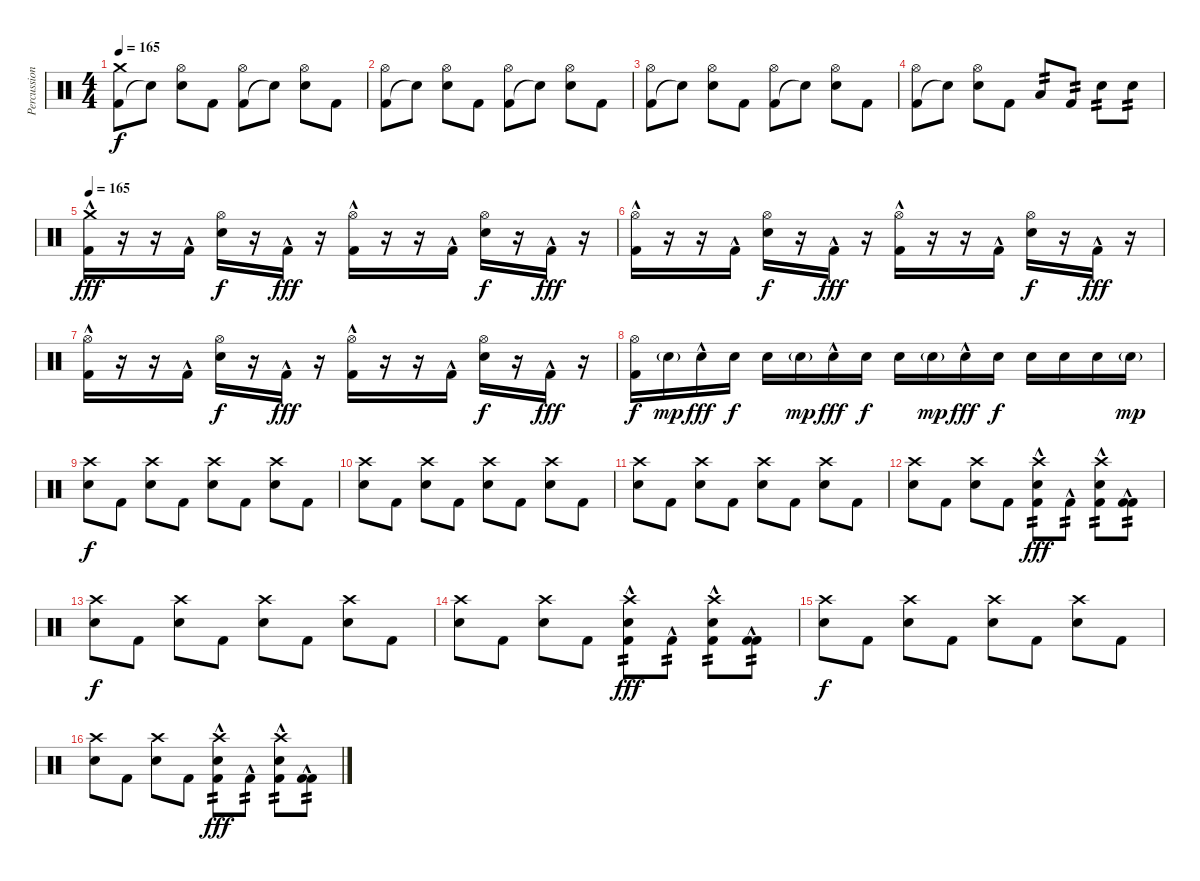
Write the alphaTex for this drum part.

\track ("Percussion" "Percussion") {instrument percussion}
\staff {score}
\articulation defaults
\ts (4 4)
\tempo 165
\clef neutral
\ks c
("Kick (hit) 2" "Crash medium (hit)").8{dy f} "Snare (hit)"{t}.8 ("Snare (hit) 2" "Hi-Hat (open)").8 "Kick (hit) 2".8 ("Kick (hit) 2" "Hi-Hat (open)").8 "Snare (hit)"{t}.8 ("Snare (hit) 2" "Hi-Hat (open)").8 "Kick (hit) 2".8 |
("Kick (hit) 2" "Hi-Hat (open)").8 "Snare (hit)"{t}.8 ("Snare (hit) 2" "Hi-Hat (open)").8 "Kick (hit) 2".8 ("Kick (hit) 2" "Hi-Hat (open)").8 "Snare (hit)"{t}.8 ("Snare (hit) 2" "Hi-Hat (open)").8 "Kick (hit) 2".8 |
("Kick (hit) 2" "Hi-Hat (open)").8 "Snare (hit)"{t}.8 ("Snare (hit) 2" "Hi-Hat (open)").8 "Kick (hit) 2".8 ("Kick (hit) 2" "Hi-Hat (open)").8 "Snare (hit)"{t}.8 ("Snare (hit) 2" "Hi-Hat (open)").8 "Kick (hit) 2".8 |
("Kick (hit) 2" "Hi-Hat (open)").8 "Snare (hit)"{t}.8 ("Snare (hit) 2" "Hi-Hat (open)").8 "Kick (hit) 2".8 "Low Tom (hit)".8{tp 2} "Kick (hit) 2".8{tp 2} "Snare (hit) 2".8{tp 2} "Snare (hit) 2".8{tp 2} |
\tempo 165
("Kick (hit) 2"{hac} "Crash medium (hit)").16{dy fff} r.16 r.16 "Kick (hit) 2"{hac}.16 ("Snare (hit) 2" "Hi-Hat (open)").16{dy f} r.16 "Kick (hit) 2"{hac}.16{dy fff} r.16 ("Kick (hit) 2"{hac} "Hi-Hat (open)").16 r.16 r.16 "Kick (hit) 2"{hac}.16 ("Snare (hit) 2" "Hi-Hat (open)").16{dy f} r.16 "Kick (hit) 2"{hac}.16{dy fff} r.16 |
("Kick (hit) 2"{hac} "Hi-Hat (open)").16 r.16 r.16 "Kick (hit) 2"{hac}.16 ("Snare (hit) 2" "Hi-Hat (open)").16{dy f} r.16 "Kick (hit) 2"{hac}.16{dy fff} r.16 ("Kick (hit) 2"{hac} "Hi-Hat (open)").16 r.16 r.16 "Kick (hit) 2"{hac}.16 ("Snare (hit) 2" "Hi-Hat (open)").16{dy f} r.16 "Kick (hit) 2"{hac}.16{dy fff} r.16 |
("Kick (hit) 2"{hac} "Hi-Hat (open)").16 r.16 r.16 "Kick (hit) 2"{hac}.16 ("Snare (hit) 2" "Hi-Hat (open)").16{dy f} r.16 "Kick (hit) 2"{hac}.16{dy fff} r.16 ("Kick (hit) 2"{hac} "Hi-Hat (open)").16 r.16 r.16 "Kick (hit) 2"{hac}.16 ("Snare (hit) 2" "Hi-Hat (open)").16{dy f} r.16 "Kick (hit) 2"{hac}.16{dy fff} r.16 |
("Kick (hit) 2" "Hi-Hat (open)").16{dy f} "Snare (hit) 2"{g}.16{dy mp} "Snare (hit) 2"{hac}.16{dy fff} "Snare (hit) 2".16{dy f} "Snare (hit) 2".16 "Snare (hit) 2"{g}.16{dy mp} "Snare (hit) 2"{hac}.16{dy fff} "Snare (hit) 2".16{dy f} "Snare (hit) 2".16 "Snare (hit) 2"{g}.16{dy mp} "Snare (hit) 2"{hac}.16{dy fff} "Snare (hit) 2".16{dy f} "Snare (hit) 2".16 "Snare (hit) 2".16 "Snare (hit) 2".16 "Snare (hit) 2"{g}.16{dy mp} |
("Snare (hit) 2" "Crash high (hit)").8{dy f} "Kick (hit) 2".8 ("Snare (hit) 2" "Crash high (hit)").8 "Kick (hit) 2".8 ("Snare (hit) 2" "Crash high (hit)").8 "Kick (hit) 2".8 ("Snare (hit) 2" "Crash high (hit)").8 "Kick (hit) 2".8 |
("Snare (hit) 2" "Crash high (hit)").8 "Kick (hit) 2".8 ("Snare (hit) 2" "Crash high (hit)").8 "Kick (hit) 2".8 ("Snare (hit) 2" "Crash high (hit)").8 "Kick (hit) 2".8 ("Snare (hit) 2" "Crash high (hit)").8 "Kick (hit) 2".8 |
("Snare (hit) 2" "Crash high (hit)").8 "Kick (hit) 2".8 ("Snare (hit) 2" "Crash high (hit)").8 "Kick (hit) 2".8 ("Snare (hit) 2" "Crash high (hit)").8 "Kick (hit) 2".8 ("Snare (hit) 2" "Crash high (hit)").8 "Kick (hit) 2".8 |
("Snare (hit) 2" "Crash high (hit)").8 "Kick (hit) 2".8 ("Snare (hit) 2" "Crash high (hit)").8 "Kick (hit) 2".8 ("Kick (hit) 2"{hac} "Snare (hit) 2" "Crash high (hit)").8{tp 2 dy fff} "Kick (hit) 2"{hac}.8{tp 2} ("Kick (hit) 2"{hac} "Snare (hit) 2" "Crash high (hit)").8{tp 2} ("Kick (hit) 2"{hac} "Kick (hit) 2").8{tp 2} |
("Snare (hit) 2" "Crash high (hit)").8{dy f} "Kick (hit) 2".8 ("Snare (hit) 2" "Crash high (hit)").8 "Kick (hit) 2".8 ("Snare (hit) 2" "Crash high (hit)").8 "Kick (hit) 2".8 ("Snare (hit) 2" "Crash high (hit)").8 "Kick (hit) 2".8 |
("Snare (hit) 2" "Crash high (hit)").8 "Kick (hit) 2".8 ("Snare (hit) 2" "Crash high (hit)").8 "Kick (hit) 2".8 ("Kick (hit) 2"{hac} "Snare (hit) 2" "Crash high (hit)").8{tp 2 dy fff} "Kick (hit) 2"{hac}.8{tp 2} ("Kick (hit) 2"{hac} "Snare (hit) 2" "Crash high (hit)").8{tp 2} ("Kick (hit) 2"{hac} "Kick (hit) 2").8{tp 2} |
("Snare (hit) 2" "Crash high (hit)").8{dy f} "Kick (hit) 2".8 ("Snare (hit) 2" "Crash high (hit)").8 "Kick (hit) 2".8 ("Snare (hit) 2" "Crash high (hit)").8 "Kick (hit) 2".8 ("Snare (hit) 2" "Crash high (hit)").8 "Kick (hit) 2".8 |
("Snare (hit) 2" "Crash high (hit)").8 "Kick (hit) 2".8 ("Snare (hit) 2" "Crash high (hit)").8 "Kick (hit) 2".8 ("Kick (hit) 2"{hac} "Snare (hit) 2" "Crash high (hit)").8{tp 2 dy fff} "Kick (hit) 2"{hac}.8{tp 2} ("Kick (hit) 2"{hac} "Snare (hit) 2" "Crash high (hit)").8{tp 2} ("Kick (hit) 2"{hac} "Kick (hit) 2").8{tp 2}
